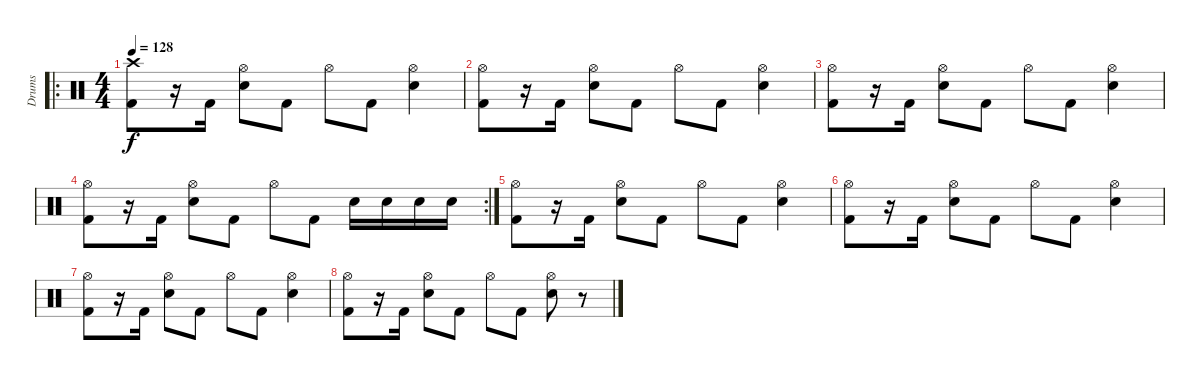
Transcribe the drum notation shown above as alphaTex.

\track ("Drums" "Drums") {instrument percussion}
\staff {score}
\articulation defaults
\ro
\ts (4 4)
\tempo 128
\clef neutral
\ks c
("Crash high (hit)" "Kick (hit) 2").8{dy f} r.16 "Kick (hit) 2".16 ("Hi-Hat (open)" "Electric Snare (hit)").8 "Kick (hit) 2".8 "Hi-Hat (open)".8 "Kick (hit) 2".8 ("Hi-Hat (open)" "Electric Snare (hit)").4 |
("Hi-Hat (open)" "Kick (hit) 2").8 r.16 "Kick (hit) 2".16 ("Hi-Hat (open)" "Electric Snare (hit)").8 "Kick (hit) 2".8 "Hi-Hat (open)".8 "Kick (hit) 2".8 ("Hi-Hat (open)" "Electric Snare (hit)").4 |
("Hi-Hat (open)" "Kick (hit) 2").8 r.16 "Kick (hit) 2".16 ("Hi-Hat (open)" "Electric Snare (hit)").8 "Kick (hit) 2".8 "Hi-Hat (open)".8 "Kick (hit) 2".8 ("Hi-Hat (open)" "Electric Snare (hit)").4 |
\rc 2
("Hi-Hat (open)" "Kick (hit) 2").8 r.16 "Kick (hit) 2".16 ("Hi-Hat (open)" "Electric Snare (hit)").8 "Kick (hit) 2".8 "Hi-Hat (open)".8 "Kick (hit) 2".8 "Electric Snare (hit)".16 "Electric Snare (hit)".16 "Electric Snare (hit)".16 "Electric Snare (hit)".16 |
("Hi-Hat (open)" "Kick (hit) 2").8 r.16 "Kick (hit) 2".16 ("Hi-Hat (open)" "Electric Snare (hit)").8 "Kick (hit) 2".8 "Hi-Hat (open)".8 "Kick (hit) 2".8 ("Hi-Hat (open)" "Electric Snare (hit)").4 |
("Hi-Hat (open)" "Kick (hit) 2").8 r.16 "Kick (hit) 2".16 ("Hi-Hat (open)" "Electric Snare (hit)").8 "Kick (hit) 2".8 "Hi-Hat (open)".8 "Kick (hit) 2".8 ("Hi-Hat (open)" "Electric Snare (hit)").4 |
("Hi-Hat (open)" "Kick (hit) 2").8 r.16 "Kick (hit) 2".16 ("Hi-Hat (open)" "Electric Snare (hit)").8 "Kick (hit) 2".8 "Hi-Hat (open)".8 "Kick (hit) 2".8 ("Hi-Hat (open)" "Electric Snare (hit)").4 |
("Hi-Hat (open)" "Kick (hit) 2").8 r.16 "Kick (hit) 2".16 ("Hi-Hat (open)" "Electric Snare (hit)").8 "Kick (hit) 2".8 "Hi-Hat (open)".8 "Kick (hit) 2".8 ("Hi-Hat (open)" "Electric Snare (hit)").8 r.8
